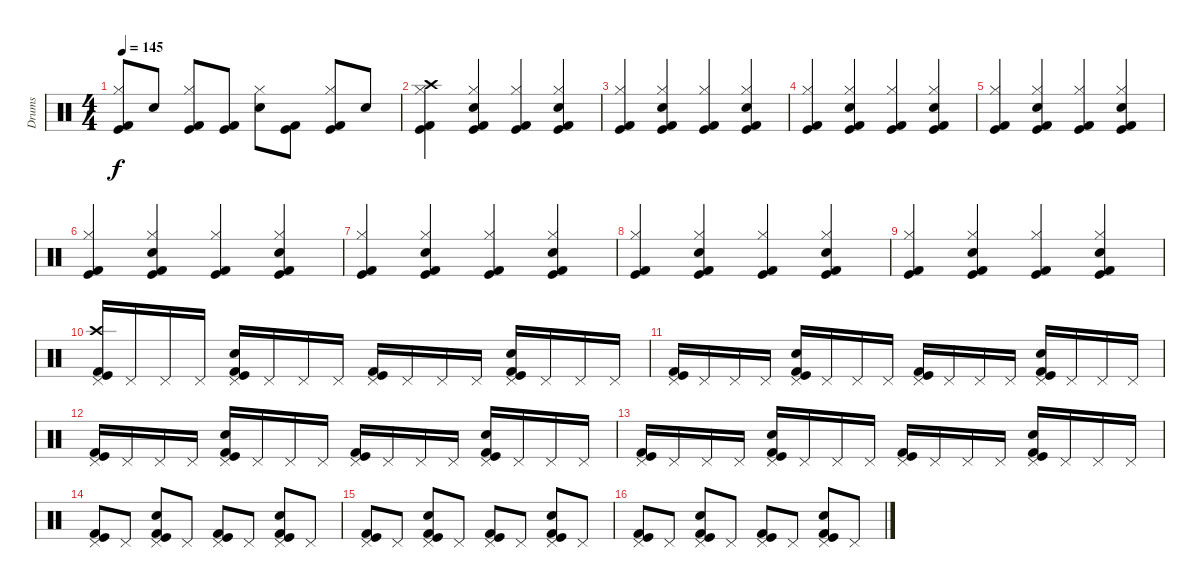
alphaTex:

\track ("Drums" "Drums") {instrument percussion}
\staff {score}
\articulation defaults
\ts (4 4)
\tempo 145
\clef neutral
\ks c
("Kick (hit) 2" "Hi-Hat (closed)" "Kick (hit)").8{dy f} "Electric Snare (hit)".8 ("Kick (hit) 2" "Hi-Hat (closed)" "Kick (hit)").8 ("Kick (hit) 2" "Kick (hit)").8 ("Hi-Hat (closed)" "Electric Snare (hit)").8 ("Kick (hit) 2" "Kick (hit)").8 ("Hi-Hat (closed)" "Kick (hit) 2" "Kick (hit)").8 "Electric Snare (hit)".8 |
("Crash high (hit)" "Hi-Hat (closed)" "Kick (hit) 2" "Kick (hit)").4 ("Hi-Hat (closed)" "Electric Snare (hit)" "Kick (hit) 2" "Kick (hit)").4 ("Hi-Hat (closed)" "Kick (hit) 2" "Kick (hit)").4 ("Electric Snare (hit)" "Hi-Hat (closed)" "Kick (hit) 2" "Kick (hit)").4 |
("Kick (hit) 2" "Hi-Hat (closed)" "Kick (hit)").4 ("Electric Snare (hit)" "Hi-Hat (closed)" "Kick (hit) 2" "Kick (hit)").4 ("Hi-Hat (closed)" "Kick (hit) 2" "Kick (hit)").4 ("Hi-Hat (closed)" "Electric Snare (hit)" "Kick (hit) 2" "Kick (hit)").4 |
("Hi-Hat (closed)" "Kick (hit) 2" "Kick (hit)").4 ("Hi-Hat (closed)" "Electric Snare (hit)" "Kick (hit) 2" "Kick (hit)").4 ("Hi-Hat (closed)" "Kick (hit) 2" "Kick (hit)").4 ("Electric Snare (hit)" "Hi-Hat (closed)" "Kick (hit) 2" "Kick (hit)").4 |
("Kick (hit) 2" "Hi-Hat (closed)" "Kick (hit)").4 ("Electric Snare (hit)" "Hi-Hat (closed)" "Kick (hit) 2" "Kick (hit)").4 ("Hi-Hat (closed)" "Kick (hit) 2" "Kick (hit)").4 ("Hi-Hat (closed)" "Electric Snare (hit)" "Kick (hit) 2" "Kick (hit)").4 |
("Hi-Hat (closed)" "Kick (hit) 2" "Kick (hit)").4 ("Hi-Hat (closed)" "Electric Snare (hit)" "Kick (hit) 2" "Kick (hit)").4 ("Hi-Hat (closed)" "Kick (hit) 2" "Kick (hit)").4 ("Electric Snare (hit)" "Hi-Hat (closed)" "Kick (hit) 2" "Kick (hit)").4 |
("Kick (hit) 2" "Hi-Hat (closed)" "Kick (hit)").4 ("Electric Snare (hit)" "Hi-Hat (closed)" "Kick (hit) 2" "Kick (hit)").4 ("Hi-Hat (closed)" "Kick (hit) 2" "Kick (hit)").4 ("Hi-Hat (closed)" "Electric Snare (hit)" "Kick (hit) 2" "Kick (hit)").4 |
("Hi-Hat (closed)" "Kick (hit) 2" "Kick (hit)").4 ("Hi-Hat (closed)" "Electric Snare (hit)" "Kick (hit) 2" "Kick (hit)").4 ("Hi-Hat (closed)" "Kick (hit) 2" "Kick (hit)").4 ("Electric Snare (hit)" "Hi-Hat (closed)" "Kick (hit) 2" "Kick (hit)").4 |
("Kick (hit) 2" "Hi-Hat (closed)" "Kick (hit)").4 ("Electric Snare (hit)" "Hi-Hat (closed)" "Kick (hit) 2" "Kick (hit)").4 ("Hi-Hat (closed)" "Kick (hit) 2" "Kick (hit)").4 ("Hi-Hat (closed)" "Electric Snare (hit)" "Kick (hit) 2" "Kick (hit)").4 |
("Crash high (hit)" "Kick (hit) 2" "Pedal Hi-Hat (hit)" "Kick (hit)").16 "Pedal Hi-Hat (hit)".16 "Pedal Hi-Hat (hit)".16 "Pedal Hi-Hat (hit)".16 ("Pedal Hi-Hat (hit)" "Electric Snare (hit)" "Kick (hit) 2" "Kick (hit)").16 "Pedal Hi-Hat (hit)".16 "Pedal Hi-Hat (hit)".16 "Pedal Hi-Hat (hit)".16 ("Pedal Hi-Hat (hit)" "Kick (hit) 2" "Kick (hit)").16 "Pedal Hi-Hat (hit)".16 "Pedal Hi-Hat (hit)".16 "Pedal Hi-Hat (hit)".16 ("Electric Snare (hit)" "Pedal Hi-Hat (hit)" "Kick (hit) 2" "Kick (hit)").16 "Pedal Hi-Hat (hit)".16 "Pedal Hi-Hat (hit)".16 "Pedal Hi-Hat (hit)".16 |
("Kick (hit) 2" "Pedal Hi-Hat (hit)" "Kick (hit)").16 "Pedal Hi-Hat (hit)".16 "Pedal Hi-Hat (hit)".16 "Pedal Hi-Hat (hit)".16 ("Pedal Hi-Hat (hit)" "Electric Snare (hit)" "Kick (hit) 2" "Kick (hit)").16 "Pedal Hi-Hat (hit)".16 "Pedal Hi-Hat (hit)".16 "Pedal Hi-Hat (hit)".16 ("Pedal Hi-Hat (hit)" "Kick (hit) 2" "Kick (hit)").16 "Pedal Hi-Hat (hit)".16 "Pedal Hi-Hat (hit)".16 "Pedal Hi-Hat (hit)".16 ("Electric Snare (hit)" "Pedal Hi-Hat (hit)" "Kick (hit) 2" "Kick (hit)").16 "Pedal Hi-Hat (hit)".16 "Pedal Hi-Hat (hit)".16 "Pedal Hi-Hat (hit)".16 |
("Kick (hit) 2" "Pedal Hi-Hat (hit)" "Kick (hit)").16 "Pedal Hi-Hat (hit)".16 "Pedal Hi-Hat (hit)".16 "Pedal Hi-Hat (hit)".16 ("Pedal Hi-Hat (hit)" "Electric Snare (hit)" "Kick (hit) 2" "Kick (hit)").16 "Pedal Hi-Hat (hit)".16 "Pedal Hi-Hat (hit)".16 "Pedal Hi-Hat (hit)".16 ("Pedal Hi-Hat (hit)" "Kick (hit) 2" "Kick (hit)").16 "Pedal Hi-Hat (hit)".16 "Pedal Hi-Hat (hit)".16 "Pedal Hi-Hat (hit)".16 ("Electric Snare (hit)" "Pedal Hi-Hat (hit)" "Kick (hit) 2" "Kick (hit)").16 "Pedal Hi-Hat (hit)".16 "Pedal Hi-Hat (hit)".16 "Pedal Hi-Hat (hit)".16 |
("Kick (hit) 2" "Pedal Hi-Hat (hit)" "Kick (hit)").16 "Pedal Hi-Hat (hit)".16 "Pedal Hi-Hat (hit)".16 "Pedal Hi-Hat (hit)".16 ("Pedal Hi-Hat (hit)" "Electric Snare (hit)" "Kick (hit) 2" "Kick (hit)").16 "Pedal Hi-Hat (hit)".16 "Pedal Hi-Hat (hit)".16 "Pedal Hi-Hat (hit)".16 ("Pedal Hi-Hat (hit)" "Kick (hit) 2" "Kick (hit)").16 "Pedal Hi-Hat (hit)".16 "Pedal Hi-Hat (hit)".16 "Pedal Hi-Hat (hit)".16 ("Electric Snare (hit)" "Pedal Hi-Hat (hit)" "Kick (hit) 2" "Kick (hit)").16 "Pedal Hi-Hat (hit)".16 "Pedal Hi-Hat (hit)".16 "Pedal Hi-Hat (hit)".16 |
("Kick (hit) 2" "Pedal Hi-Hat (hit)" "Kick (hit)").8 "Pedal Hi-Hat (hit)".8 ("Pedal Hi-Hat (hit)" "Electric Snare (hit)" "Kick (hit) 2" "Kick (hit)").8 "Pedal Hi-Hat (hit)".8 ("Pedal Hi-Hat (hit)" "Kick (hit) 2" "Kick (hit)").8 "Pedal Hi-Hat (hit)".8 ("Pedal Hi-Hat (hit)" "Electric Snare (hit)" "Kick (hit) 2" "Kick (hit)").8 "Pedal Hi-Hat (hit)".8 |
("Kick (hit) 2" "Pedal Hi-Hat (hit)" "Kick (hit)").8 "Pedal Hi-Hat (hit)".8 ("Pedal Hi-Hat (hit)" "Electric Snare (hit)" "Kick (hit) 2" "Kick (hit)").8 "Pedal Hi-Hat (hit)".8 ("Kick (hit) 2" "Pedal Hi-Hat (hit)" "Kick (hit)").8 "Pedal Hi-Hat (hit)".8 ("Electric Snare (hit)" "Pedal Hi-Hat (hit)" "Kick (hit) 2" "Kick (hit)").8 "Pedal Hi-Hat (hit)".8 |
("Kick (hit) 2" "Pedal Hi-Hat (hit)" "Kick (hit)").8 "Pedal Hi-Hat (hit)".8 ("Electric Snare (hit)" "Pedal Hi-Hat (hit)" "Kick (hit) 2" "Kick (hit)").8 "Pedal Hi-Hat (hit)".8 ("Kick (hit) 2" "Pedal Hi-Hat (hit)" "Kick (hit)").8 "Pedal Hi-Hat (hit)".8 ("Electric Snare (hit)" "Pedal Hi-Hat (hit)" "Kick (hit) 2" "Kick (hit)").8 "Pedal Hi-Hat (hit)".8
